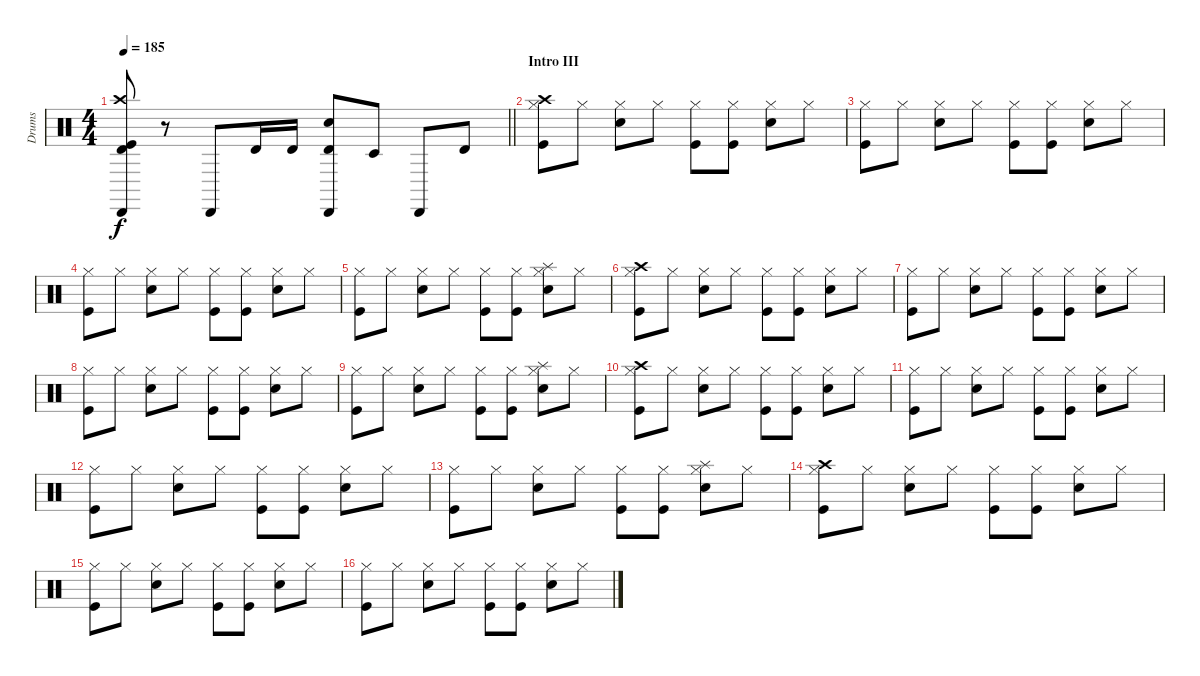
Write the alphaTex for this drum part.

\track ("Drums" "Drums") {instrument percussion}
\staff {score}
\articulation defaults
\ts (4 4)
\tempo 185
\clef neutral
\barLineRight lightlight
\ks c
("Crash high (hit)" "Kick (hit)" "Timbale high (hit)" "Cabasa (hit)").8{dy f} r.8 "Cabasa (hit)".8 "Timbale high (hit)".16 "Timbale high (hit)".16 ("Snare (hit) 2" "Timbale high (hit)" "Cabasa (hit)").8 "Timbale low (hit)".8 "Cabasa (hit)".8 "Timbale high (hit)".8 |
\section ("" "Intro III")
("Kick (hit)" "Crash high (hit)" "Hi-Hat (closed)").8 "Hi-Hat (closed)".8 ("Snare (hit) 2" "Hi-Hat (closed)").8 "Hi-Hat (closed)".8 ("Kick (hit)" "Hi-Hat (closed)").8 ("Kick (hit)" "Hi-Hat (closed)").8 ("Snare (hit) 2" "Hi-Hat (closed)").8 "Hi-Hat (closed)".8 |
("Kick (hit)" "Hi-Hat (closed)").8 "Hi-Hat (closed)".8 ("Snare (hit) 2" "Hi-Hat (closed)").8 "Hi-Hat (closed)".8 ("Kick (hit)" "Hi-Hat (closed)").8 ("Kick (hit)" "Hi-Hat (closed)").8 ("Snare (hit) 2" "Hi-Hat (closed)").8 "Hi-Hat (closed)".8 |
("Kick (hit)" "Hi-Hat (closed)").8 "Hi-Hat (closed)".8 ("Snare (hit) 2" "Hi-Hat (closed)").8 "Hi-Hat (closed)".8 ("Kick (hit)" "Hi-Hat (closed)").8 ("Kick (hit)" "Hi-Hat (closed)").8 ("Snare (hit) 2" "Hi-Hat (closed)").8 "Hi-Hat (closed)".8 |
("Kick (hit)" "Hi-Hat (closed)").8 "Hi-Hat (closed)".8 ("Snare (hit) 2" "Hi-Hat (closed)").8 "Hi-Hat (closed)".8 ("Kick (hit)" "Hi-Hat (closed)").8 ("Kick (hit)" "Hi-Hat (closed)").8 ("Snare (hit) 2" "Splash (hit)" "Hi-Hat (closed)").8 "Hi-Hat (closed)".8 |
("Kick (hit)" "Crash high (hit)" "Hi-Hat (closed)").8 "Hi-Hat (closed)".8 ("Snare (hit) 2" "Hi-Hat (closed)").8 "Hi-Hat (closed)".8 ("Kick (hit)" "Hi-Hat (closed)").8 ("Kick (hit)" "Hi-Hat (closed)").8 ("Snare (hit) 2" "Hi-Hat (closed)").8 "Hi-Hat (closed)".8 |
("Kick (hit)" "Hi-Hat (closed)").8 "Hi-Hat (closed)".8 ("Snare (hit) 2" "Hi-Hat (closed)").8 "Hi-Hat (closed)".8 ("Kick (hit)" "Hi-Hat (closed)").8 ("Kick (hit)" "Hi-Hat (closed)").8 ("Snare (hit) 2" "Hi-Hat (closed)").8 "Hi-Hat (closed)".8 |
("Kick (hit)" "Hi-Hat (closed)").8 "Hi-Hat (closed)".8 ("Snare (hit) 2" "Hi-Hat (closed)").8 "Hi-Hat (closed)".8 ("Kick (hit)" "Hi-Hat (closed)").8 ("Kick (hit)" "Hi-Hat (closed)").8 ("Snare (hit) 2" "Hi-Hat (closed)").8 "Hi-Hat (closed)".8 |
("Kick (hit)" "Hi-Hat (closed)").8 "Hi-Hat (closed)".8 ("Snare (hit) 2" "Hi-Hat (closed)").8 "Hi-Hat (closed)".8 ("Kick (hit)" "Hi-Hat (closed)").8 ("Kick (hit)" "Hi-Hat (closed)").8 ("Snare (hit) 2" "Splash (hit)" "Hi-Hat (closed)").8 "Hi-Hat (closed)".8 |
("Kick (hit)" "Crash high (hit)" "Hi-Hat (closed)").8 "Hi-Hat (closed)".8 ("Snare (hit) 2" "Hi-Hat (closed)").8 "Hi-Hat (closed)".8 ("Kick (hit)" "Hi-Hat (closed)").8 ("Kick (hit)" "Hi-Hat (closed)").8 ("Snare (hit) 2" "Hi-Hat (closed)").8 "Hi-Hat (closed)".8 |
("Kick (hit)" "Hi-Hat (closed)").8 "Hi-Hat (closed)".8 ("Snare (hit) 2" "Hi-Hat (closed)").8 "Hi-Hat (closed)".8 ("Kick (hit)" "Hi-Hat (closed)").8 ("Kick (hit)" "Hi-Hat (closed)").8 ("Snare (hit) 2" "Hi-Hat (closed)").8 "Hi-Hat (closed)".8 |
("Kick (hit)" "Hi-Hat (closed)").8 "Hi-Hat (closed)".8 ("Snare (hit) 2" "Hi-Hat (closed)").8 "Hi-Hat (closed)".8 ("Kick (hit)" "Hi-Hat (closed)").8 ("Kick (hit)" "Hi-Hat (closed)").8 ("Snare (hit) 2" "Hi-Hat (closed)").8 "Hi-Hat (closed)".8 |
("Kick (hit)" "Hi-Hat (closed)").8 "Hi-Hat (closed)".8 ("Snare (hit) 2" "Hi-Hat (closed)").8 "Hi-Hat (closed)".8 ("Kick (hit)" "Hi-Hat (closed)").8 ("Kick (hit)" "Hi-Hat (closed)").8 ("Snare (hit) 2" "Splash (hit)" "Hi-Hat (closed)").8 "Hi-Hat (closed)".8 |
("Kick (hit)" "Crash high (hit)" "Hi-Hat (closed)").8 "Hi-Hat (closed)".8 ("Snare (hit) 2" "Hi-Hat (closed)").8 "Hi-Hat (closed)".8 ("Kick (hit)" "Hi-Hat (closed)").8 ("Kick (hit)" "Hi-Hat (closed)").8 ("Snare (hit) 2" "Hi-Hat (closed)").8 "Hi-Hat (closed)".8 |
("Kick (hit)" "Hi-Hat (closed)").8 "Hi-Hat (closed)".8 ("Snare (hit) 2" "Hi-Hat (closed)").8 "Hi-Hat (closed)".8 ("Kick (hit)" "Hi-Hat (closed)").8 ("Kick (hit)" "Hi-Hat (closed)").8 ("Snare (hit) 2" "Hi-Hat (closed)").8 "Hi-Hat (closed)".8 |
("Kick (hit)" "Hi-Hat (closed)").8 "Hi-Hat (closed)".8 ("Snare (hit) 2" "Hi-Hat (closed)").8 "Hi-Hat (closed)".8 ("Kick (hit)" "Hi-Hat (closed)").8 ("Kick (hit)" "Hi-Hat (closed)").8 ("Snare (hit) 2" "Hi-Hat (closed)").8 "Hi-Hat (closed)".8
